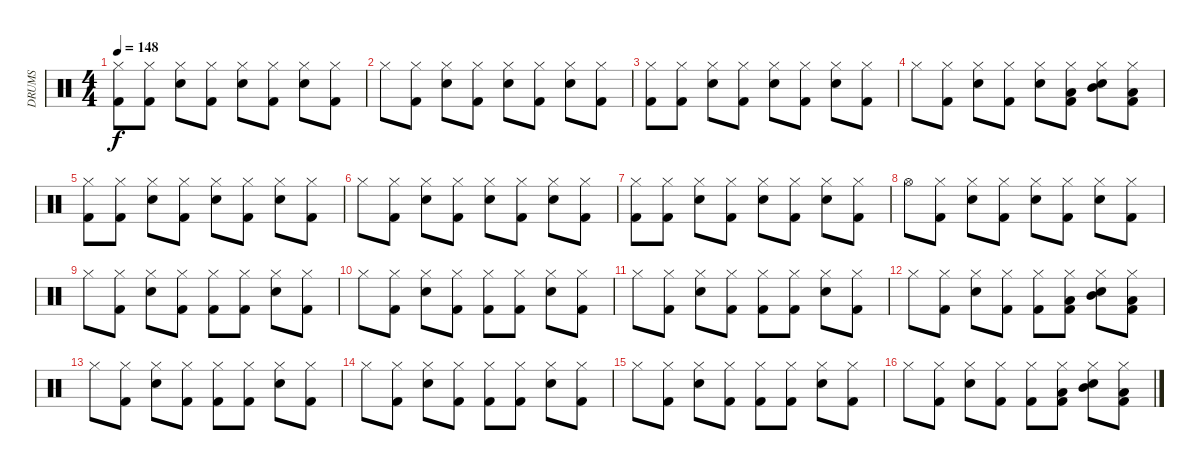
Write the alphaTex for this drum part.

\track ("DRUMS" "DRUMS") {instrument percussion}
\staff {score}
\articulation defaults
\ts (4 4)
\tempo 148
\clef neutral
\ks c
("Hi-Hat (closed)" "Kick (hit) 2").8{dy f} ("Hi-Hat (closed)" "Kick (hit) 2").8 ("Hi-Hat (closed)" "Snare (hit) 2").8 ("Hi-Hat (closed)" "Kick (hit) 2").8 ("Hi-Hat (closed)" "Snare (hit) 2").8 ("Hi-Hat (closed)" "Kick (hit) 2").8 ("Hi-Hat (closed)" "Snare (hit) 2").8 ("Hi-Hat (closed)" "Kick (hit) 2").8 |
"Hi-Hat (closed)".8 ("Hi-Hat (closed)" "Kick (hit) 2").8 ("Hi-Hat (closed)" "Snare (hit) 2").8 ("Hi-Hat (closed)" "Kick (hit) 2").8 ("Hi-Hat (closed)" "Snare (hit) 2").8 ("Hi-Hat (closed)" "Kick (hit) 2").8 ("Hi-Hat (closed)" "Snare (hit) 2").8 ("Hi-Hat (closed)" "Kick (hit) 2").8 |
("Hi-Hat (closed)" "Kick (hit) 2").8 ("Hi-Hat (closed)" "Kick (hit) 2").8 ("Hi-Hat (closed)" "Snare (hit) 2").8 ("Hi-Hat (closed)" "Kick (hit) 2").8 ("Hi-Hat (closed)" "Snare (hit) 2").8 ("Hi-Hat (closed)" "Kick (hit) 2").8 ("Hi-Hat (closed)" "Snare (hit) 2").8 ("Hi-Hat (closed)" "Kick (hit) 2").8 |
"Hi-Hat (closed)".8 ("Hi-Hat (closed)" "Kick (hit) 2").8 ("Hi-Hat (closed)" "Snare (hit) 2").8 ("Hi-Hat (closed)" "Kick (hit) 2").8 ("Hi-Hat (closed)" "Snare (hit) 2").8 ("Hi-Hat (closed)" "Low Tom (hit)" "Kick (hit) 2").8 ("Hi-Hat (closed)" "Mid Tom (hit)" "Snare (hit) 2").8 ("Hi-Hat (closed)" "Low Tom (hit)" "Kick (hit) 2").8 |
("Hi-Hat (closed)" "Kick (hit) 2").8 ("Hi-Hat (closed)" "Kick (hit) 2").8 ("Hi-Hat (closed)" "Snare (hit) 2").8 ("Hi-Hat (closed)" "Kick (hit) 2").8 ("Hi-Hat (closed)" "Snare (hit) 2").8 ("Hi-Hat (closed)" "Kick (hit) 2").8 ("Hi-Hat (closed)" "Snare (hit) 2").8 ("Hi-Hat (closed)" "Kick (hit) 2").8 |
"Hi-Hat (closed)".8 ("Hi-Hat (closed)" "Kick (hit) 2").8 ("Hi-Hat (closed)" "Snare (hit) 2").8 ("Hi-Hat (closed)" "Kick (hit) 2").8 ("Hi-Hat (closed)" "Snare (hit) 2").8 ("Hi-Hat (closed)" "Kick (hit) 2").8 ("Hi-Hat (closed)" "Snare (hit) 2").8 ("Hi-Hat (closed)" "Kick (hit) 2").8 |
("Hi-Hat (closed)" "Kick (hit) 2").8 ("Hi-Hat (closed)" "Kick (hit) 2").8 ("Hi-Hat (closed)" "Snare (hit) 2").8 ("Hi-Hat (closed)" "Kick (hit) 2").8 ("Hi-Hat (closed)" "Snare (hit) 2").8 ("Hi-Hat (closed)" "Kick (hit) 2").8 ("Hi-Hat (closed)" "Snare (hit) 2").8 ("Hi-Hat (closed)" "Kick (hit) 2").8 |
"Hi-Hat (open)".8 ("Hi-Hat (closed)" "Kick (hit) 2").8 ("Hi-Hat (closed)" "Snare (hit) 2").8 ("Hi-Hat (closed)" "Kick (hit) 2").8 ("Hi-Hat (closed)" "Snare (hit) 2").8 ("Hi-Hat (closed)" "Kick (hit) 2").8 ("Hi-Hat (closed)" "Snare (hit) 2").8 ("Hi-Hat (closed)" "Kick (hit) 2").8 |
"Hi-Hat (closed)".8 ("Hi-Hat (closed)" "Kick (hit) 2").8 ("Hi-Hat (closed)" "Snare (hit) 2").8 ("Hi-Hat (closed)" "Kick (hit) 2").8 ("Hi-Hat (closed)" "Kick (hit) 2").8 ("Hi-Hat (closed)" "Kick (hit) 2").8 ("Hi-Hat (closed)" "Snare (hit) 2").8 ("Hi-Hat (closed)" "Kick (hit) 2").8 |
"Hi-Hat (closed)".8 ("Hi-Hat (closed)" "Kick (hit) 2").8 ("Hi-Hat (closed)" "Snare (hit) 2").8 ("Hi-Hat (closed)" "Kick (hit) 2").8 ("Hi-Hat (closed)" "Kick (hit) 2").8 ("Hi-Hat (closed)" "Kick (hit) 2").8 ("Hi-Hat (closed)" "Snare (hit) 2").8 ("Hi-Hat (closed)" "Kick (hit) 2").8 |
"Hi-Hat (closed)".8 ("Hi-Hat (closed)" "Kick (hit) 2").8 ("Hi-Hat (closed)" "Snare (hit) 2").8 ("Hi-Hat (closed)" "Kick (hit) 2").8 ("Hi-Hat (closed)" "Kick (hit) 2").8 ("Hi-Hat (closed)" "Kick (hit) 2").8 ("Hi-Hat (closed)" "Snare (hit) 2").8 ("Hi-Hat (closed)" "Kick (hit) 2").8 |
"Hi-Hat (closed)".8 ("Hi-Hat (closed)" "Kick (hit) 2").8 ("Hi-Hat (closed)" "Snare (hit) 2").8 ("Hi-Hat (closed)" "Kick (hit) 2").8 ("Hi-Hat (closed)" "Kick (hit) 2").8 ("Hi-Hat (closed)" "Low Tom (hit)" "Kick (hit) 2").8 ("Hi-Hat (closed)" "Mid Tom (hit)" "Snare (hit) 2").8 ("Hi-Hat (closed)" "Low Tom (hit)" "Kick (hit) 2").8 |
"Hi-Hat (closed)".8 ("Hi-Hat (closed)" "Kick (hit) 2").8 ("Hi-Hat (closed)" "Snare (hit) 2").8 ("Hi-Hat (closed)" "Kick (hit) 2").8 ("Hi-Hat (closed)" "Kick (hit) 2").8 ("Hi-Hat (closed)" "Kick (hit) 2").8 ("Hi-Hat (closed)" "Snare (hit) 2").8 ("Hi-Hat (closed)" "Kick (hit) 2").8 |
"Hi-Hat (closed)".8 ("Hi-Hat (closed)" "Kick (hit) 2").8 ("Hi-Hat (closed)" "Snare (hit) 2").8 ("Hi-Hat (closed)" "Kick (hit) 2").8 ("Hi-Hat (closed)" "Kick (hit) 2").8 ("Hi-Hat (closed)" "Kick (hit) 2").8 ("Hi-Hat (closed)" "Snare (hit) 2").8 ("Hi-Hat (closed)" "Kick (hit) 2").8 |
"Hi-Hat (closed)".8 ("Hi-Hat (closed)" "Kick (hit) 2").8 ("Hi-Hat (closed)" "Snare (hit) 2").8 ("Hi-Hat (closed)" "Kick (hit) 2").8 ("Hi-Hat (closed)" "Kick (hit) 2").8 ("Hi-Hat (closed)" "Kick (hit) 2").8 ("Hi-Hat (closed)" "Snare (hit) 2").8 ("Hi-Hat (closed)" "Kick (hit) 2").8 |
"Hi-Hat (closed)".8 ("Hi-Hat (closed)" "Kick (hit) 2").8 ("Hi-Hat (closed)" "Snare (hit) 2").8 ("Hi-Hat (closed)" "Kick (hit) 2").8 ("Hi-Hat (closed)" "Kick (hit) 2").8 ("Hi-Hat (closed)" "Low Tom (hit)" "Kick (hit) 2").8 ("Hi-Hat (closed)" "Mid Tom (hit)" "Snare (hit) 2").8 ("Hi-Hat (closed)" "Low Tom (hit)" "Kick (hit) 2").8
